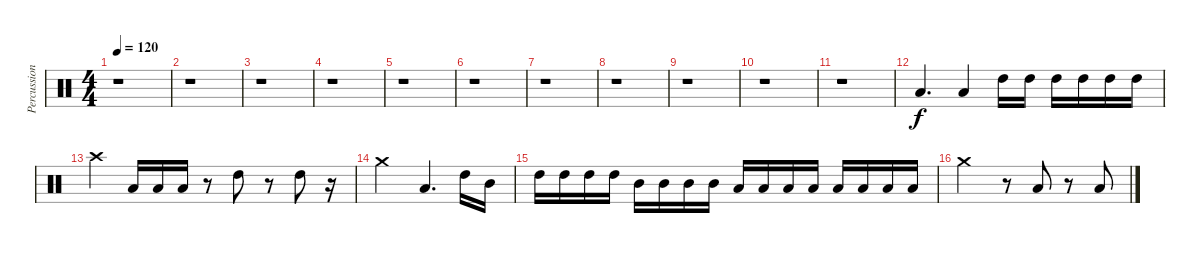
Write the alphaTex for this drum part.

\track ("Percussion" "Percussion") {instrument percussion}
\staff {score}
\articulation defaults
\ts (4 4)
\tempo 120
\clef neutral
\ks c
r.1{dy f} |
r.1 |
r.1 |
r.1 |
r.1 |
r.1 |
r.1 |
r.1 |
r.1 |
r.1 |
r.1 |
"Low Tom (hit)".4{d} "Low Tom (hit)".4 "High Tom (hit)".16 "High Tom (hit)".16 "High Tom (hit)".16 "High Tom (hit)".16 "High Tom (hit)".16 "High Tom (hit)".16 |
"Crash high (hit)".4 "Low Tom (hit)".16 "Low Tom (hit)".16 "Low Tom (hit)".16 r.8 "High Tom (hit)".8 r.8 "High Tom (hit)".8 r.16 |
"Crash medium (hit)".2 "Low Tom (hit)".4{d} "High Tom (hit)".16 "Mid Tom (hit)".16 |
"High Tom (hit)".16 "High Tom (hit)".16 "High Tom (hit)".16 "High Tom (hit)".16 "Mid Tom (hit)".16 "Mid Tom (hit)".16 "Mid Tom (hit)".16 "Mid Tom (hit)".16 "Low Tom (hit)".16 "Low Tom (hit)".16 "Low Tom (hit)".16 "Low Tom (hit)".16 "Low Floor Tom (hit)".16 "Low Floor Tom (hit)".16 "Low Floor Tom (hit)".16 "Low Floor Tom (hit)".16 |
"Crash medium (hit)".2 r.8 "Low Tom (hit)".8 r.8 "Low Tom (hit)".8
